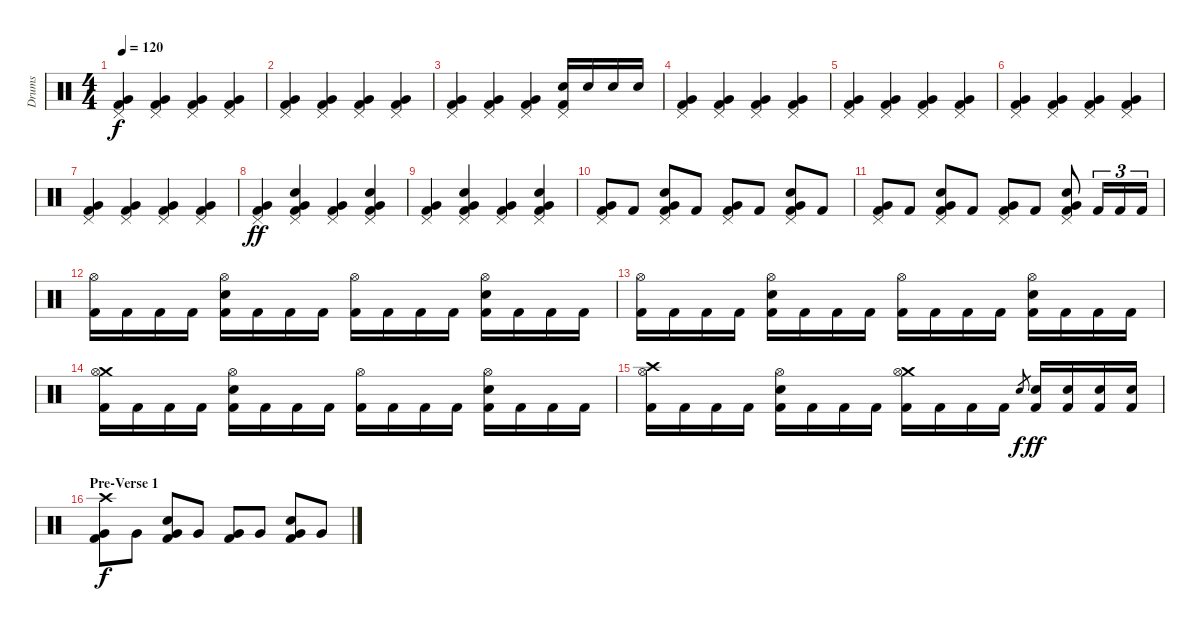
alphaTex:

\track ("Drums" "Drums") {instrument percussion}
\staff {score}
\articulation defaults
\ts (4 4)
\tempo 120
\clef neutral
\ks c
("Pedal Hi-Hat (hit)" "Very Low Tom (hit)" "Kick (hit) 2").4{dy f} ("Pedal Hi-Hat (hit)" "Very Low Tom (hit)" "Kick (hit) 2").4 ("Pedal Hi-Hat (hit)" "Very Low Tom (hit)" "Kick (hit) 2").4 ("Pedal Hi-Hat (hit)" "Very Low Tom (hit)" "Kick (hit) 2").4 |
("Pedal Hi-Hat (hit)" "Very Low Tom (hit)" "Kick (hit) 2").4 ("Pedal Hi-Hat (hit)" "Very Low Tom (hit)" "Kick (hit) 2").4 ("Pedal Hi-Hat (hit)" "Very Low Tom (hit)" "Kick (hit) 2").4 ("Pedal Hi-Hat (hit)" "Very Low Tom (hit)" "Kick (hit) 2").4 |
("Pedal Hi-Hat (hit)" "Very Low Tom (hit)" "Kick (hit) 2").4 ("Pedal Hi-Hat (hit)" "Very Low Tom (hit)" "Kick (hit) 2").4 ("Pedal Hi-Hat (hit)" "Very Low Tom (hit)" "Kick (hit) 2").4 ("Pedal Hi-Hat (hit)" "Snare (hit) 2" "Kick (hit) 2").16 "Snare (hit) 2".16 "Snare (hit) 2".16 "Snare (hit) 2".16 |
("Pedal Hi-Hat (hit)" "Very Low Tom (hit)" "Kick (hit) 2").4 ("Pedal Hi-Hat (hit)" "Very Low Tom (hit)" "Kick (hit) 2").4 ("Pedal Hi-Hat (hit)" "Very Low Tom (hit)" "Kick (hit) 2").4 ("Pedal Hi-Hat (hit)" "Very Low Tom (hit)" "Kick (hit) 2").4 |
("Pedal Hi-Hat (hit)" "Very Low Tom (hit)" "Kick (hit) 2").4 ("Pedal Hi-Hat (hit)" "Very Low Tom (hit)" "Kick (hit) 2").4 ("Pedal Hi-Hat (hit)" "Very Low Tom (hit)" "Kick (hit) 2").4 ("Pedal Hi-Hat (hit)" "Very Low Tom (hit)" "Kick (hit) 2").4 |
("Pedal Hi-Hat (hit)" "Very Low Tom (hit)" "Kick (hit) 2").4 ("Pedal Hi-Hat (hit)" "Very Low Tom (hit)" "Kick (hit) 2").4 ("Pedal Hi-Hat (hit)" "Very Low Tom (hit)" "Kick (hit) 2").4 ("Pedal Hi-Hat (hit)" "Very Low Tom (hit)" "Kick (hit) 2").4 |
("Pedal Hi-Hat (hit)" "Very Low Tom (hit)" "Kick (hit) 2").4 ("Pedal Hi-Hat (hit)" "Very Low Tom (hit)" "Kick (hit) 2").4 ("Pedal Hi-Hat (hit)" "Very Low Tom (hit)" "Kick (hit) 2").4 ("Pedal Hi-Hat (hit)" "Very Low Tom (hit)" "Kick (hit) 2").4 |
("Pedal Hi-Hat (hit)" "Very Low Tom (hit)" "Kick (hit) 2").4{dy ff} ("Pedal Hi-Hat (hit)" "Very Low Tom (hit)" "Snare (hit) 2" "Kick (hit) 2").4 ("Pedal Hi-Hat (hit)" "Very Low Tom (hit)" "Kick (hit) 2").4 ("Pedal Hi-Hat (hit)" "Very Low Tom (hit)" "Snare (hit) 2" "Kick (hit) 2").4 |
("Pedal Hi-Hat (hit)" "Very Low Tom (hit)" "Kick (hit) 2").4 ("Pedal Hi-Hat (hit)" "Very Low Tom (hit)" "Snare (hit) 2" "Kick (hit) 2").4 ("Pedal Hi-Hat (hit)" "Very Low Tom (hit)" "Kick (hit) 2").4 ("Pedal Hi-Hat (hit)" "Very Low Tom (hit)" "Snare (hit) 2" "Kick (hit) 2").4 |
("Pedal Hi-Hat (hit)" "Very Low Tom (hit)" "Kick (hit) 2").8 "Kick (hit) 2".8 ("Pedal Hi-Hat (hit)" "Very Low Tom (hit)" "Snare (hit) 2" "Kick (hit) 2").8 "Kick (hit) 2".8 ("Pedal Hi-Hat (hit)" "Very Low Tom (hit)" "Kick (hit) 2").8 "Kick (hit) 2".8 ("Pedal Hi-Hat (hit)" "Very Low Tom (hit)" "Snare (hit) 2" "Kick (hit) 2").8 "Kick (hit) 2".8 |
("Pedal Hi-Hat (hit)" "Very Low Tom (hit)" "Kick (hit) 2").8 "Kick (hit) 2".8 ("Pedal Hi-Hat (hit)" "Very Low Tom (hit)" "Snare (hit) 2" "Kick (hit) 2").8 "Kick (hit) 2".8 ("Pedal Hi-Hat (hit)" "Very Low Tom (hit)" "Kick (hit) 2").8 "Kick (hit) 2".8 ("Pedal Hi-Hat (hit)" "Very Low Tom (hit)" "Snare (hit) 2" "Kick (hit) 2").8 "Kick (hit) 2".16{tu (3 2)} "Kick (hit) 2".16{tu (3 2)} "Kick (hit) 2".16{tu (3 2)} |
("Hi-Hat (open)" "Kick (hit) 2").16 "Kick (hit) 2".16 "Kick (hit) 2".16 "Kick (hit) 2".16 ("Hi-Hat (open)" "Snare (hit) 2" "Kick (hit) 2").16 "Kick (hit) 2".16 "Kick (hit) 2".16 "Kick (hit) 2".16 ("Hi-Hat (open)" "Kick (hit) 2").16 "Kick (hit) 2".16 "Kick (hit) 2".16 "Kick (hit) 2".16 ("Hi-Hat (open)" "Snare (hit) 2" "Kick (hit) 2").16 "Kick (hit) 2".16 "Kick (hit) 2".16 "Kick (hit) 2".16 |
("Hi-Hat (open)" "Kick (hit) 2").16 "Kick (hit) 2".16 "Kick (hit) 2".16 "Kick (hit) 2".16 ("Hi-Hat (open)" "Snare (hit) 2" "Kick (hit) 2").16 "Kick (hit) 2".16 "Kick (hit) 2".16 "Kick (hit) 2".16 ("Hi-Hat (open)" "Kick (hit) 2").16 "Kick (hit) 2".16 "Kick (hit) 2".16 "Kick (hit) 2".16 ("Hi-Hat (open)" "Snare (hit) 2" "Kick (hit) 2").16 "Kick (hit) 2".16 "Kick (hit) 2".16 "Kick (hit) 2".16 |
("Crash medium (hit)" "Hi-Hat (open)" "Kick (hit) 2").16 "Kick (hit) 2".16 "Kick (hit) 2".16 "Kick (hit) 2".16 ("Hi-Hat (open)" "Snare (hit) 2" "Kick (hit) 2").16 "Kick (hit) 2".16 "Kick (hit) 2".16 "Kick (hit) 2".16 ("Hi-Hat (open)" "Kick (hit) 2").16 "Kick (hit) 2".16 "Kick (hit) 2".16 "Kick (hit) 2".16 ("Hi-Hat (open)" "Snare (hit) 2" "Kick (hit) 2").16 "Kick (hit) 2".16 "Kick (hit) 2".16 "Kick (hit) 2".16 |
("Crash high (hit)" "Hi-Hat (open)" "Kick (hit) 2").16 "Kick (hit) 2".16 "Kick (hit) 2".16 "Kick (hit) 2".16 ("Hi-Hat (open)" "Snare (hit) 2" "Kick (hit) 2").16 "Kick (hit) 2".16 "Kick (hit) 2".16 "Kick (hit) 2".16 ("Crash medium (hit)" "Hi-Hat (open)" "Kick (hit) 2").16 "Kick (hit) 2".16 "Kick (hit) 2".16 "Kick (hit) 2".16 "Snare (hit) 2".8{gr dy f} ("Snare (hit) 2" "Kick (hit) 2").16{dy ff} ("Snare (hit) 2" "Kick (hit) 2").16 ("Snare (hit) 2" "Kick (hit) 2").16 ("Snare (hit) 2" "Kick (hit) 2").16 |
\section ("" "Pre-Verse 1")
("Crash high (hit)" "Very Low Tom (hit)" "Kick (hit) 2").8{dy f} "Very Low Tom (hit)".8 ("Very Low Tom (hit)" "Snare (hit) 2" "Kick (hit) 2").8 "Very Low Tom (hit)".8 ("Very Low Tom (hit)" "Kick (hit) 2").8 "Very Low Tom (hit)".8 ("Very Low Tom (hit)" "Snare (hit) 2" "Kick (hit) 2").8 "Very Low Tom (hit)".8
